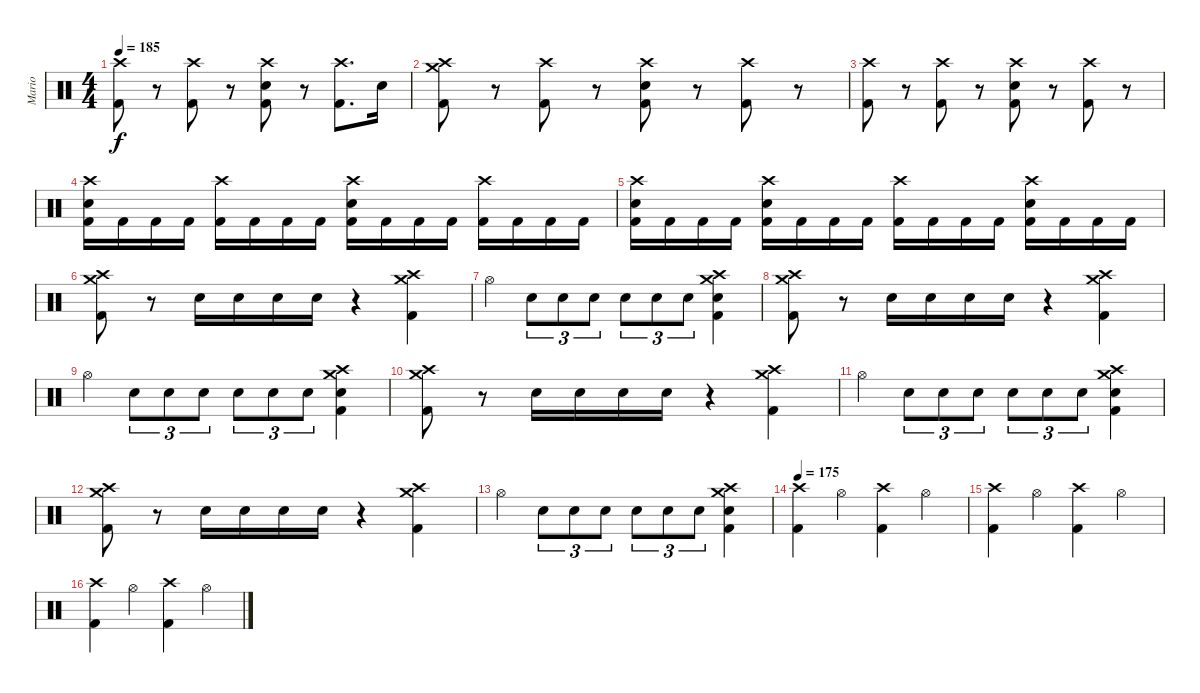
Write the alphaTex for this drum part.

\track ("Mario" "Mario") {instrument percussion}
\staff {score}
\articulation defaults
\ts (4 4)
\tempo 185
\clef neutral
\ks c
("Crash high (hit)" "Kick (hit) 2").8{dy f} r.8 ("Crash high (hit)" "Kick (hit) 2").8 r.8 ("Crash high (hit)" "Electric Snare (hit)" "Kick (hit) 2").8 r.8 ("Crash high (hit)" "Kick (hit) 2").8{d} "Electric Snare (hit)".16 |
("Crash high (hit)" "Crash medium (hit)" "Kick (hit) 2").8 r.8 ("Crash high (hit)" "Kick (hit) 2").8 r.8 ("Crash high (hit)" "Electric Snare (hit)" "Kick (hit) 2").8 r.8 ("Crash high (hit)" "Kick (hit) 2").8 r.8 |
("Crash high (hit)" "Kick (hit) 2").8 r.8 ("Crash high (hit)" "Kick (hit) 2").8 r.8 ("Crash high (hit)" "Electric Snare (hit)" "Kick (hit) 2").8 r.8 ("Crash high (hit)" "Kick (hit) 2").8 r.8 |
("Crash high (hit)" "Electric Snare (hit)" "Kick (hit) 2").16 "Kick (hit) 2".16 "Kick (hit) 2".16 "Kick (hit) 2".16 ("Crash high (hit)" "Kick (hit) 2").16 "Kick (hit) 2".16 "Kick (hit) 2".16 "Kick (hit) 2".16 ("Crash high (hit)" "Electric Snare (hit)" "Kick (hit) 2").16 "Kick (hit) 2".16 "Kick (hit) 2".16 "Kick (hit) 2".16 ("Crash high (hit)" "Kick (hit) 2").16 "Kick (hit) 2".16 "Kick (hit) 2".16 "Kick (hit) 2".16 |
("Crash high (hit)" "Electric Snare (hit)" "Kick (hit) 2").16 "Kick (hit) 2".16 "Kick (hit) 2".16 "Kick (hit) 2".16 ("Crash high (hit)" "Electric Snare (hit)" "Kick (hit) 2").16 "Kick (hit) 2".16 "Kick (hit) 2".16 "Kick (hit) 2".16 ("Crash high (hit)" "Kick (hit) 2").16 "Kick (hit) 2".16 "Kick (hit) 2".16 "Kick (hit) 2".16 ("Crash high (hit)" "Electric Snare (hit)" "Kick (hit) 2").16 "Kick (hit) 2".16 "Kick (hit) 2".16 "Kick (hit) 2".16 |
("Crash high (hit)" "Crash medium (hit)" "Kick (hit) 2").8 r.8 "Electric Snare (hit)".16 "Electric Snare (hit)".16 "Electric Snare (hit)".16 "Electric Snare (hit)".16 r.4 ("Crash high (hit)" "Crash medium (hit)" "Kick (hit) 2").4 |
"Hi-Hat (open)".4 "Electric Snare (hit)".8{tu (3 2)} "Electric Snare (hit)".8{tu (3 2)} "Electric Snare (hit)".8{tu (3 2)} "Electric Snare (hit)".8{tu (3 2)} "Electric Snare (hit)".8{tu (3 2)} "Electric Snare (hit)".8{tu (3 2)} ("Crash high (hit)" "Crash medium (hit)" "Electric Snare (hit)" "Kick (hit) 2").4 |
("Crash high (hit)" "Crash medium (hit)" "Kick (hit) 2").8 r.8 "Electric Snare (hit)".16 "Electric Snare (hit)".16 "Electric Snare (hit)".16 "Electric Snare (hit)".16 r.4 ("Crash high (hit)" "Crash medium (hit)" "Kick (hit) 2").4 |
"Hi-Hat (open)".4 "Electric Snare (hit)".8{tu (3 2)} "Electric Snare (hit)".8{tu (3 2)} "Electric Snare (hit)".8{tu (3 2)} "Electric Snare (hit)".8{tu (3 2)} "Electric Snare (hit)".8{tu (3 2)} "Electric Snare (hit)".8{tu (3 2)} ("Crash high (hit)" "Crash medium (hit)" "Electric Snare (hit)" "Kick (hit) 2").4 |
("Crash high (hit)" "Crash medium (hit)" "Kick (hit) 2").8 r.8 "Electric Snare (hit)".16 "Electric Snare (hit)".16 "Electric Snare (hit)".16 "Electric Snare (hit)".16 r.4 ("Crash high (hit)" "Crash medium (hit)" "Kick (hit) 2").4 |
"Hi-Hat (open)".4 "Electric Snare (hit)".8{tu (3 2)} "Electric Snare (hit)".8{tu (3 2)} "Electric Snare (hit)".8{tu (3 2)} "Electric Snare (hit)".8{tu (3 2)} "Electric Snare (hit)".8{tu (3 2)} "Electric Snare (hit)".8{tu (3 2)} ("Crash high (hit)" "Crash medium (hit)" "Electric Snare (hit)" "Kick (hit) 2").4 |
("Crash high (hit)" "Crash medium (hit)" "Kick (hit) 2").8 r.8 "Electric Snare (hit)".16 "Electric Snare (hit)".16 "Electric Snare (hit)".16 "Electric Snare (hit)".16 r.4 ("Crash high (hit)" "Crash medium (hit)" "Kick (hit) 2").4 |
"Hi-Hat (open)".4 "Electric Snare (hit)".8{tu (3 2)} "Electric Snare (hit)".8{tu (3 2)} "Electric Snare (hit)".8{tu (3 2)} "Electric Snare (hit)".8{tu (3 2)} "Electric Snare (hit)".8{tu (3 2)} "Electric Snare (hit)".8{tu (3 2)} ("Crash high (hit)" "Crash medium (hit)" "Electric Snare (hit)" "Kick (hit) 2").4 |
\tempo 175
("Crash high (hit)" "Kick (hit) 2").4 "Hi-Hat (open)".4 ("Crash high (hit)" "Kick (hit) 2").4 "Hi-Hat (open)".4 |
("Crash high (hit)" "Kick (hit) 2").4 "Hi-Hat (open)".4 ("Crash high (hit)" "Kick (hit) 2").4 "Hi-Hat (open)".4 |
("Crash high (hit)" "Kick (hit) 2").4 "Hi-Hat (open)".4 ("Crash high (hit)" "Kick (hit) 2").4 "Hi-Hat (open)".4
